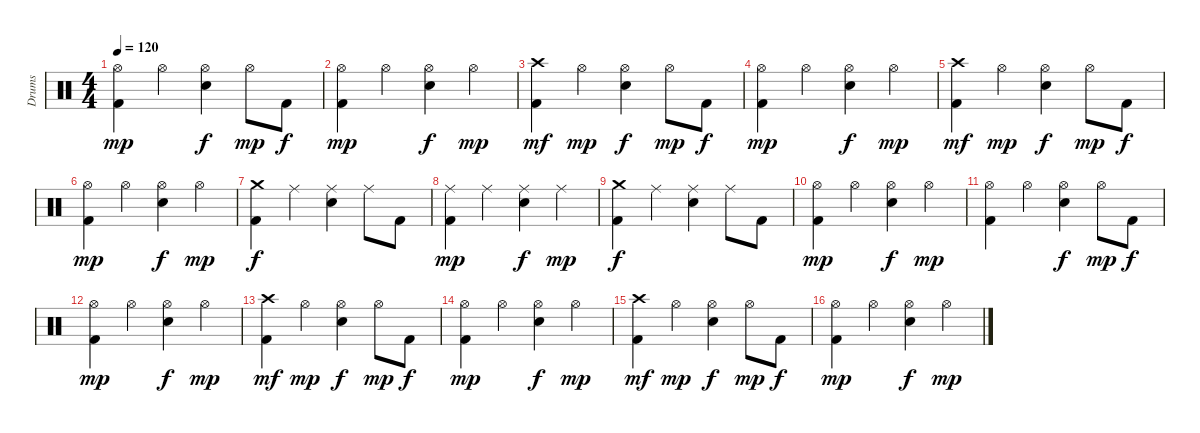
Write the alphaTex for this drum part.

\track ("Drums" "Drums") {instrument percussion}
\staff {score}
\articulation defaults
\ts (4 4)
\tempo 120
\clef neutral
\ks c
("Hi-Hat (open)" "Kick (hit) 2").4{dy mp} "Hi-Hat (open)".4 ("Hi-Hat (open)" "Snare (hit) 2").4{dy f} "Hi-Hat (open)".8{dy mp} "Kick (hit) 2".8{dy f} |
("Hi-Hat (open)" "Kick (hit) 2").4{dy mp} "Hi-Hat (open)".4 ("Hi-Hat (open)" "Snare (hit) 2").4{dy f} "Hi-Hat (open)".4{dy mp} |
("Crash high (hit)" "Kick (hit) 2").4{dy mf} "Hi-Hat (open)".4{dy mp} ("Hi-Hat (open)" "Snare (hit) 2").4{dy f} "Hi-Hat (open)".8{dy mp} "Kick (hit) 2".8{dy f} |
("Hi-Hat (open)" "Kick (hit) 2").4{dy mp} "Hi-Hat (open)".4 ("Hi-Hat (open)" "Snare (hit) 2").4{dy f} "Hi-Hat (open)".4{dy mp} |
("Crash high (hit)" "Kick (hit) 2").4{dy mf} "Hi-Hat (open)".4{dy mp} ("Hi-Hat (open)" "Snare (hit) 2").4{dy f} "Hi-Hat (open)".8{dy mp} "Kick (hit) 2".8{dy f} |
("Hi-Hat (open)" "Kick (hit) 2").4{dy mp} "Hi-Hat (open)".4 ("Hi-Hat (open)" "Snare (hit) 2").4{dy f} "Hi-Hat (open)".4{dy mp} |
("Crash medium (hit)" "Kick (hit) 2").4{dy f} "Ride (middle)".4 ("Ride (middle)" "Snare (hit) 2").4 "Ride (middle)".8 "Kick (hit) 2".8 |
("Ride (middle)" "Kick (hit) 2").4{dy mp} "Ride (middle)".4 ("Ride (middle)" "Snare (hit) 2").4{dy f} "Ride (middle)".4{dy mp} |
("Crash medium (hit)" "Kick (hit) 2").4{dy f} "Ride (middle)".4 ("Ride (middle)" "Snare (hit) 2").4 "Ride (middle)".8 "Kick (hit) 2".8 |
("Hi-Hat (open)" "Kick (hit) 2").4{dy mp} "Hi-Hat (open)".4 ("Hi-Hat (open)" "Snare (hit) 2").4{dy f} "Hi-Hat (open)".4{dy mp} |
("Hi-Hat (open)" "Kick (hit) 2").4 "Hi-Hat (open)".4 ("Hi-Hat (open)" "Snare (hit) 2").4{dy f} "Hi-Hat (open)".8{dy mp} "Kick (hit) 2".8{dy f} |
("Hi-Hat (open)" "Kick (hit) 2").4{dy mp} "Hi-Hat (open)".4 ("Hi-Hat (open)" "Snare (hit) 2").4{dy f} "Hi-Hat (open)".4{dy mp} |
("Crash high (hit)" "Kick (hit) 2").4{dy mf} "Hi-Hat (open)".4{dy mp} ("Hi-Hat (open)" "Snare (hit) 2").4{dy f} "Hi-Hat (open)".8{dy mp} "Kick (hit) 2".8{dy f} |
("Hi-Hat (open)" "Kick (hit) 2").4{dy mp} "Hi-Hat (open)".4 ("Hi-Hat (open)" "Snare (hit) 2").4{dy f} "Hi-Hat (open)".4{dy mp} |
("Crash high (hit)" "Kick (hit) 2").4{dy mf} "Hi-Hat (open)".4{dy mp} ("Hi-Hat (open)" "Snare (hit) 2").4{dy f} "Hi-Hat (open)".8{dy mp} "Kick (hit) 2".8{dy f} |
("Hi-Hat (open)" "Kick (hit) 2").4{dy mp} "Hi-Hat (open)".4 ("Hi-Hat (open)" "Snare (hit) 2").4{dy f} "Hi-Hat (open)".4{dy mp}
